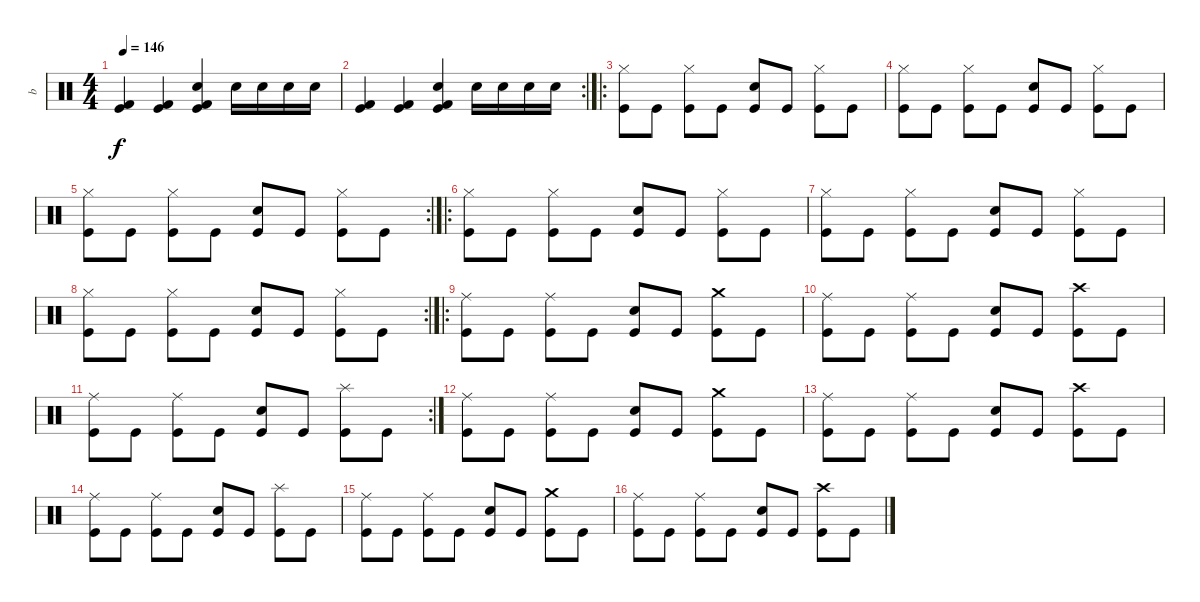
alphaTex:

\track ("b" "b") {instrument percussion}
\staff {score}
\articulation defaults
\ts (4 4)
\tempo 146
\clef neutral
\ks c
("Kick (hit) 2" "Kick (hit)").4{dy f} ("Kick (hit) 2" "Kick (hit)").4 ("Electric Snare (hit)" "Kick (hit) 2" "Kick (hit)").4 "Electric Snare (hit)".16 "Electric Snare (hit)".16 "Electric Snare (hit)".16 "Electric Snare (hit)".16 |
\rc 2
("Kick (hit) 2" "Kick (hit)").4 ("Kick (hit) 2" "Kick (hit)").4 ("Electric Snare (hit)" "Kick (hit) 2" "Kick (hit)").4 "Electric Snare (hit)".16 "Electric Snare (hit)".16 "Electric Snare (hit)".16 "Electric Snare (hit)".16 |
\ro
("Hi-Hat (closed)" "Kick (hit)").8 "Kick (hit)".8 ("Hi-Hat (closed)" "Kick (hit)").8 "Kick (hit)".8 ("Electric Snare (hit)" "Kick (hit)").8 "Kick (hit)".8 ("Hi-Hat (closed)" "Kick (hit)").8 "Kick (hit)".8 |
("Hi-Hat (closed)" "Kick (hit)").8 "Kick (hit)".8 ("Hi-Hat (closed)" "Kick (hit)").8 "Kick (hit)".8 ("Electric Snare (hit)" "Kick (hit)").8 "Kick (hit)".8 ("Hi-Hat (closed)" "Kick (hit)").8 "Kick (hit)".8 |
\rc 2
("Hi-Hat (closed)" "Kick (hit)").8 "Kick (hit)".8 ("Hi-Hat (closed)" "Kick (hit)").8 "Kick (hit)".8 ("Electric Snare (hit)" "Kick (hit)").8 "Kick (hit)".8 ("Hi-Hat (closed)" "Kick (hit)").8 "Kick (hit)".8 |
\ro
("Hi-Hat (closed)" "Kick (hit)").8 "Kick (hit)".8 ("Hi-Hat (closed)" "Kick (hit)").8 "Kick (hit)".8 ("Electric Snare (hit)" "Kick (hit)").8 "Kick (hit)".8 ("Hi-Hat (closed)" "Kick (hit)").8 "Kick (hit)".8 |
("Hi-Hat (closed)" "Kick (hit)").8 "Kick (hit)".8 ("Hi-Hat (closed)" "Kick (hit)").8 "Kick (hit)".8 ("Electric Snare (hit)" "Kick (hit)").8 "Kick (hit)".8 ("Hi-Hat (closed)" "Kick (hit)").8 "Kick (hit)".8 |
\rc 2
("Hi-Hat (closed)" "Kick (hit)").8 "Kick (hit)".8 ("Hi-Hat (closed)" "Kick (hit)").8 "Kick (hit)".8 ("Electric Snare (hit)" "Kick (hit)").8 "Kick (hit)".8 ("Hi-Hat (closed)" "Kick (hit)").8 "Kick (hit)".8 |
\ro
("Ride (middle)" "Kick (hit)").8 "Kick (hit)".8 ("Ride (middle)" "Kick (hit)").8 "Kick (hit)".8 ("Electric Snare (hit)" "Kick (hit)").8 "Kick (hit)".8 ("Crash medium (hit)" "Kick (hit)").8 "Kick (hit)".8 |
("Ride (middle)" "Kick (hit)").8 "Kick (hit)".8 ("Ride (middle)" "Kick (hit)").8 "Kick (hit)".8 ("Electric Snare (hit)" "Kick (hit)").8 "Kick (hit)".8 ("Crash high (hit)" "Kick (hit)").8 "Kick (hit)".8 |
\rc 2
("Ride (middle)" "Kick (hit)").8 "Kick (hit)".8 ("Ride (middle)" "Kick (hit)").8 "Kick (hit)".8 ("Electric Snare (hit)" "Kick (hit)").8 "Kick (hit)".8 ("Splash (hit)" "Kick (hit)").8 "Kick (hit)".8 |
("Ride (middle)" "Kick (hit)").8 "Kick (hit)".8 ("Ride (middle)" "Kick (hit)").8 "Kick (hit)".8 ("Electric Snare (hit)" "Kick (hit)").8 "Kick (hit)".8 ("Crash medium (hit)" "Kick (hit)").8 "Kick (hit)".8 |
("Ride (middle)" "Kick (hit)").8 "Kick (hit)".8 ("Ride (middle)" "Kick (hit)").8 "Kick (hit)".8 ("Electric Snare (hit)" "Kick (hit)").8 "Kick (hit)".8 ("Crash high (hit)" "Kick (hit)").8 "Kick (hit)".8 |
("Ride (middle)" "Kick (hit)").8 "Kick (hit)".8 ("Ride (middle)" "Kick (hit)").8 "Kick (hit)".8 ("Electric Snare (hit)" "Kick (hit)").8 "Kick (hit)".8 ("Splash (hit)" "Kick (hit)").8 "Kick (hit)".8 |
("Ride (middle)" "Kick (hit)").8 "Kick (hit)".8 ("Ride (middle)" "Kick (hit)").8 "Kick (hit)".8 ("Electric Snare (hit)" "Kick (hit)").8 "Kick (hit)".8 ("Crash medium (hit)" "Kick (hit)").8 "Kick (hit)".8 |
("Ride (middle)" "Kick (hit)").8 "Kick (hit)".8 ("Ride (middle)" "Kick (hit)").8 "Kick (hit)".8 ("Electric Snare (hit)" "Kick (hit)").8 "Kick (hit)".8 ("Crash high (hit)" "Kick (hit)").8 "Kick (hit)".8
